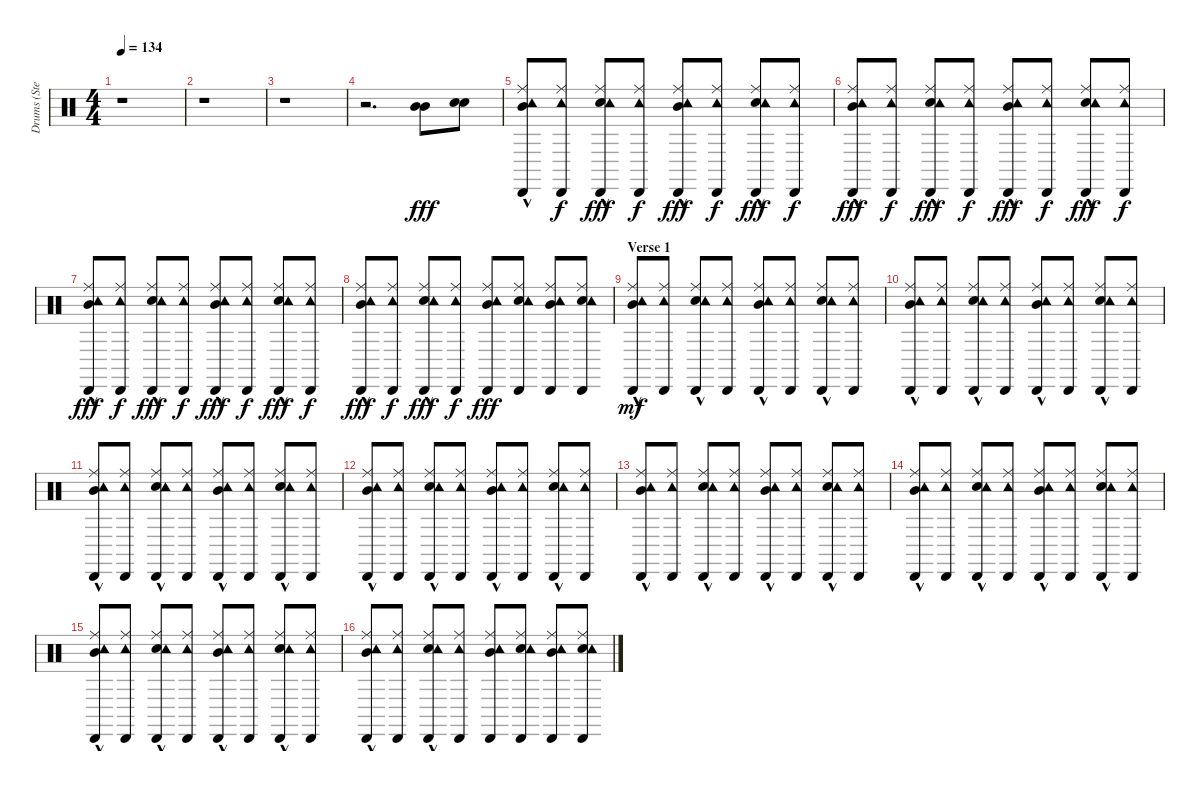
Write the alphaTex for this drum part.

\track ("Drums (Steven)" "Drums (Ste") {instrument percussion}
\staff {score}
\articulation defaults
\ts (4 4)
\tempo 134
\clef neutral
\ks c
r.1{dy fff} |
r.1 |
r.1 |
r.2{d} ("Mid Tom (hit)" "Mid Tom (hit)").8 ("Electric Snare (hit)" "Electric Snare (hit)").8 |
("Mid Tom (hit)"{hac} "Ride (middle)" "Tambourine (hit)" "Cabasa (hit)").8 ("Ride (middle)" "Tambourine (hit)" "Cabasa (hit)").8{dy f} ("Electric Snare (hit)"{hac} "Ride (middle)" "Tambourine (hit)" "Cabasa (hit)").8{dy fff} ("Ride (middle)" "Tambourine (hit)" "Cabasa (hit)").8{dy f} ("Mid Tom (hit)"{hac} "Ride (middle)" "Tambourine (hit)" "Cabasa (hit)").8{dy fff} ("Ride (middle)" "Tambourine (hit)" "Cabasa (hit)").8{dy f} ("Electric Snare (hit)"{hac} "Ride (middle)" "Tambourine (hit)" "Cabasa (hit)").8{dy fff} ("Ride (middle)" "Tambourine (hit)" "Cabasa (hit)").8{dy f} |
("Mid Tom (hit)"{hac} "Ride (middle)" "Tambourine (hit)" "Cabasa (hit)").8{dy fff} ("Ride (middle)" "Tambourine (hit)" "Cabasa (hit)").8{dy f} ("Electric Snare (hit)"{hac} "Ride (middle)" "Tambourine (hit)" "Cabasa (hit)").8{dy fff} ("Ride (middle)" "Tambourine (hit)" "Cabasa (hit)").8{dy f} ("Mid Tom (hit)"{hac} "Ride (middle)" "Tambourine (hit)" "Cabasa (hit)").8{dy fff} ("Ride (middle)" "Tambourine (hit)" "Cabasa (hit)").8{dy f} ("Electric Snare (hit)"{hac} "Ride (middle)" "Tambourine (hit)" "Cabasa (hit)").8{dy fff} ("Ride (middle)" "Tambourine (hit)" "Cabasa (hit)").8{dy f} |
("Mid Tom (hit)"{hac} "Ride (middle)" "Tambourine (hit)" "Cabasa (hit)").8{dy fff} ("Ride (middle)" "Tambourine (hit)" "Cabasa (hit)").8{dy f} ("Electric Snare (hit)"{hac} "Ride (middle)" "Tambourine (hit)" "Cabasa (hit)").8{dy fff} ("Ride (middle)" "Tambourine (hit)" "Cabasa (hit)").8{dy f} ("Mid Tom (hit)"{hac} "Ride (middle)" "Tambourine (hit)" "Cabasa (hit)").8{dy fff} ("Ride (middle)" "Tambourine (hit)" "Cabasa (hit)").8{dy f} ("Electric Snare (hit)"{hac} "Ride (middle)" "Tambourine (hit)" "Cabasa (hit)").8{dy fff} ("Ride (middle)" "Tambourine (hit)" "Cabasa (hit)").8{dy f} |
("Mid Tom (hit)"{hac} "Ride (middle)" "Tambourine (hit)" "Cabasa (hit)").8{dy fff} ("Ride (middle)" "Tambourine (hit)" "Cabasa (hit)").8{dy f} ("Electric Snare (hit)"{hac} "Ride (middle)" "Tambourine (hit)" "Cabasa (hit)").8{dy fff} ("Ride (middle)" "Tambourine (hit)" "Cabasa (hit)").8{dy f} ("Mid Tom (hit)" "Ride (middle)" "Tambourine (hit)" "Cabasa (hit)").8{dy fff} ("Electric Snare (hit)" "Ride (middle)" "Tambourine (hit)" "Cabasa (hit)").8 ("Mid Tom (hit)" "Ride (middle)" "Tambourine (hit)" "Cabasa (hit)").8 ("Electric Snare (hit)" "Ride (middle)" "Tambourine (hit)" "Cabasa (hit)").8 |
\section ("" "Verse 1")
("Mid Tom (hit)"{hac} "Ride (middle)" "Tambourine (hit)" "Cabasa (hit)").8{dy mf} ("Ride (middle)" "Tambourine (hit)" "Cabasa (hit)").8 ("Electric Snare (hit)"{hac} "Ride (middle)" "Tambourine (hit)" "Cabasa (hit)").8 ("Ride (middle)" "Tambourine (hit)" "Cabasa (hit)").8 ("Mid Tom (hit)"{hac} "Ride (middle)" "Tambourine (hit)" "Cabasa (hit)").8 ("Ride (middle)" "Tambourine (hit)" "Cabasa (hit)").8 ("Electric Snare (hit)"{hac} "Ride (middle)" "Tambourine (hit)" "Cabasa (hit)").8 ("Ride (middle)" "Tambourine (hit)" "Cabasa (hit)").8 |
("Mid Tom (hit)"{hac} "Ride (middle)" "Tambourine (hit)" "Cabasa (hit)").8 ("Ride (middle)" "Tambourine (hit)" "Cabasa (hit)").8 ("Electric Snare (hit)"{hac} "Ride (middle)" "Tambourine (hit)" "Cabasa (hit)").8 ("Ride (middle)" "Tambourine (hit)" "Cabasa (hit)").8 ("Mid Tom (hit)"{hac} "Ride (middle)" "Tambourine (hit)" "Cabasa (hit)").8 ("Ride (middle)" "Tambourine (hit)" "Cabasa (hit)").8 ("Electric Snare (hit)"{hac} "Ride (middle)" "Tambourine (hit)" "Cabasa (hit)").8 ("Ride (middle)" "Tambourine (hit)" "Cabasa (hit)").8 |
("Mid Tom (hit)"{hac} "Ride (middle)" "Tambourine (hit)" "Cabasa (hit)").8 ("Ride (middle)" "Tambourine (hit)" "Cabasa (hit)").8 ("Electric Snare (hit)"{hac} "Ride (middle)" "Tambourine (hit)" "Cabasa (hit)").8 ("Ride (middle)" "Tambourine (hit)" "Cabasa (hit)").8 ("Mid Tom (hit)"{hac} "Ride (middle)" "Tambourine (hit)" "Cabasa (hit)").8 ("Ride (middle)" "Tambourine (hit)" "Cabasa (hit)").8 ("Electric Snare (hit)"{hac} "Ride (middle)" "Tambourine (hit)" "Cabasa (hit)").8 ("Ride (middle)" "Tambourine (hit)" "Cabasa (hit)").8 |
("Mid Tom (hit)"{hac} "Ride (middle)" "Tambourine (hit)" "Cabasa (hit)").8 ("Ride (middle)" "Tambourine (hit)" "Cabasa (hit)").8 ("Electric Snare (hit)"{hac} "Ride (middle)" "Tambourine (hit)" "Cabasa (hit)").8 ("Ride (middle)" "Tambourine (hit)" "Cabasa (hit)").8 ("Mid Tom (hit)"{hac} "Ride (middle)" "Tambourine (hit)" "Cabasa (hit)").8 ("Ride (middle)" "Tambourine (hit)" "Cabasa (hit)").8 ("Electric Snare (hit)"{hac} "Ride (middle)" "Tambourine (hit)" "Cabasa (hit)").8 ("Ride (middle)" "Tambourine (hit)" "Cabasa (hit)").8 |
("Mid Tom (hit)"{hac} "Ride (middle)" "Tambourine (hit)" "Cabasa (hit)").8 ("Ride (middle)" "Tambourine (hit)" "Cabasa (hit)").8 ("Electric Snare (hit)"{hac} "Ride (middle)" "Tambourine (hit)" "Cabasa (hit)").8 ("Ride (middle)" "Tambourine (hit)" "Cabasa (hit)").8 ("Mid Tom (hit)"{hac} "Ride (middle)" "Tambourine (hit)" "Cabasa (hit)").8 ("Ride (middle)" "Tambourine (hit)" "Cabasa (hit)").8 ("Electric Snare (hit)"{hac} "Ride (middle)" "Tambourine (hit)" "Cabasa (hit)").8 ("Ride (middle)" "Tambourine (hit)" "Cabasa (hit)").8 |
("Mid Tom (hit)"{hac} "Ride (middle)" "Tambourine (hit)" "Cabasa (hit)").8 ("Ride (middle)" "Tambourine (hit)" "Cabasa (hit)").8 ("Electric Snare (hit)"{hac} "Ride (middle)" "Tambourine (hit)" "Cabasa (hit)").8 ("Ride (middle)" "Tambourine (hit)" "Cabasa (hit)").8 ("Mid Tom (hit)"{hac} "Ride (middle)" "Tambourine (hit)" "Cabasa (hit)").8 ("Ride (middle)" "Tambourine (hit)" "Cabasa (hit)").8 ("Electric Snare (hit)"{hac} "Ride (middle)" "Tambourine (hit)" "Cabasa (hit)").8 ("Ride (middle)" "Tambourine (hit)" "Cabasa (hit)").8 |
("Mid Tom (hit)"{hac} "Ride (middle)" "Tambourine (hit)" "Cabasa (hit)").8 ("Ride (middle)" "Tambourine (hit)" "Cabasa (hit)").8 ("Electric Snare (hit)"{hac} "Ride (middle)" "Tambourine (hit)" "Cabasa (hit)").8 ("Ride (middle)" "Tambourine (hit)" "Cabasa (hit)").8 ("Mid Tom (hit)"{hac} "Ride (middle)" "Tambourine (hit)" "Cabasa (hit)").8 ("Ride (middle)" "Tambourine (hit)" "Cabasa (hit)").8 ("Electric Snare (hit)"{hac} "Ride (middle)" "Tambourine (hit)" "Cabasa (hit)").8 ("Ride (middle)" "Tambourine (hit)" "Cabasa (hit)").8 |
("Mid Tom (hit)"{hac} "Ride (middle)" "Tambourine (hit)" "Cabasa (hit)").8 ("Ride (middle)" "Tambourine (hit)" "Cabasa (hit)").8 ("Electric Snare (hit)"{hac} "Ride (middle)" "Tambourine (hit)" "Cabasa (hit)").8 ("Ride (middle)" "Tambourine (hit)" "Cabasa (hit)").8 ("Mid Tom (hit)" "Ride (middle)" "Tambourine (hit)" "Cabasa (hit)").8 ("Electric Snare (hit)" "Ride (middle)" "Tambourine (hit)" "Cabasa (hit)").8 ("Mid Tom (hit)" "Ride (middle)" "Tambourine (hit)" "Cabasa (hit)").8 ("Electric Snare (hit)" "Ride (middle)" "Tambourine (hit)" "Cabasa (hit)").8
